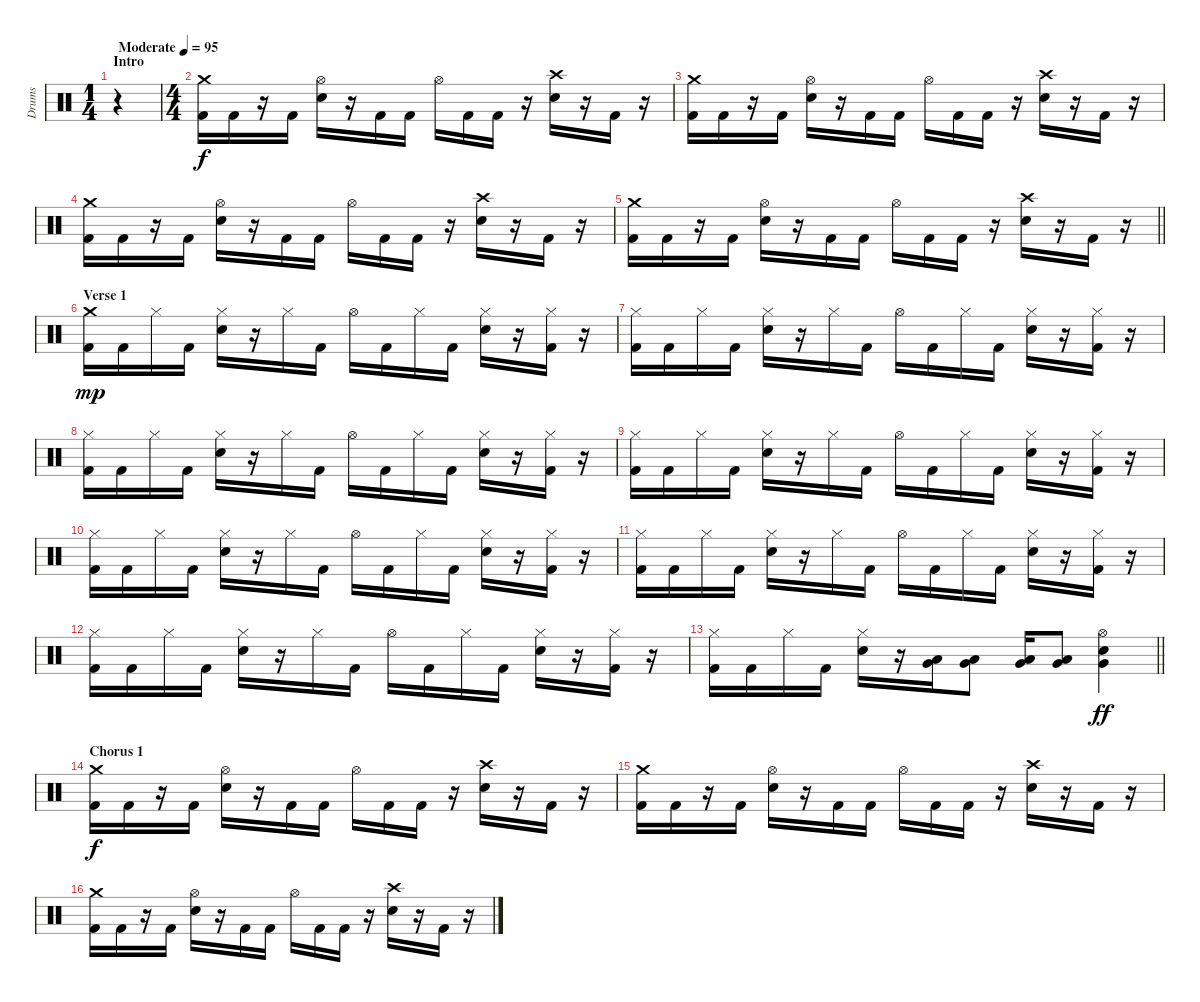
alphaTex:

\track ("Drums" "Drums") {instrument percussion}
\staff {score}
\articulation defaults
\ts (1 4)
\section ("" "Intro")
\tempo (95 "Moderate")
\clef neutral
\ks c
r.4{dy f} |
\ts (4 4)
("Crash medium (hit)" "Kick (hit) 2").16 "Kick (hit) 2".16 r.16 "Kick (hit) 2".16 ("Hi-Hat (open)" "Electric Snare (hit)").16 r.16 "Kick (hit) 2".16 "Kick (hit) 2".16 "Hi-Hat (open)".16 "Kick (hit) 2".16 "Kick (hit) 2".16 r.16 ("Crash high (hit)" "Electric Snare (hit)").16 r.16 "Kick (hit) 2".16 r.16 |
("Crash medium (hit)" "Kick (hit) 2").16 "Kick (hit) 2".16 r.16 "Kick (hit) 2".16 ("Hi-Hat (open)" "Electric Snare (hit)").16 r.16 "Kick (hit) 2".16 "Kick (hit) 2".16 "Hi-Hat (open)".16 "Kick (hit) 2".16 "Kick (hit) 2".16 r.16 ("Crash high (hit)" "Electric Snare (hit)").16 r.16 "Kick (hit) 2".16 r.16 |
("Crash medium (hit)" "Kick (hit) 2").16 "Kick (hit) 2".16 r.16 "Kick (hit) 2".16 ("Hi-Hat (open)" "Electric Snare (hit)").16 r.16 "Kick (hit) 2".16 "Kick (hit) 2".16 "Hi-Hat (open)".16 "Kick (hit) 2".16 "Kick (hit) 2".16 r.16 ("Crash high (hit)" "Electric Snare (hit)").16 r.16 "Kick (hit) 2".16 r.16 |
\barLineRight lightlight
("Crash medium (hit)" "Kick (hit) 2").16 "Kick (hit) 2".16 r.16 "Kick (hit) 2".16 ("Hi-Hat (open)" "Electric Snare (hit)").16 r.16 "Kick (hit) 2".16 "Kick (hit) 2".16 "Hi-Hat (open)".16 "Kick (hit) 2".16 "Kick (hit) 2".16 r.16 ("Crash high (hit)" "Electric Snare (hit)").16 r.16 "Kick (hit) 2".16 r.16 |
\section ("" "Verse 1")
("Crash medium (hit)" "Kick (hit) 2").16{dy mp} "Kick (hit) 2".16 "Hi-Hat (closed)".16 "Kick (hit) 2".16 ("Hi-Hat (closed)" "Electric Snare (hit)").16 r.16 "Hi-Hat (closed)".16 "Kick (hit) 2".16 "Hi-Hat (open)".16 "Kick (hit) 2".16 "Hi-Hat (closed)".16 "Kick (hit) 2".16 ("Hi-Hat (closed)" "Electric Snare (hit)").16 r.16 ("Hi-Hat (closed)" "Kick (hit) 2").16 r.16 |
("Hi-Hat (closed)" "Kick (hit) 2").16 "Kick (hit) 2".16 "Hi-Hat (closed)".16 "Kick (hit) 2".16 ("Hi-Hat (closed)" "Electric Snare (hit)").16 r.16 "Hi-Hat (closed)".16 "Kick (hit) 2".16 "Hi-Hat (open)".16 "Kick (hit) 2".16 "Hi-Hat (closed)".16 "Kick (hit) 2".16 ("Hi-Hat (closed)" "Electric Snare (hit)").16 r.16 ("Hi-Hat (closed)" "Kick (hit) 2").16 r.16 |
("Hi-Hat (closed)" "Kick (hit) 2").16 "Kick (hit) 2".16 "Hi-Hat (closed)".16 "Kick (hit) 2".16 ("Hi-Hat (closed)" "Electric Snare (hit)").16 r.16 "Hi-Hat (closed)".16 "Kick (hit) 2".16 "Hi-Hat (open)".16 "Kick (hit) 2".16 "Hi-Hat (closed)".16 "Kick (hit) 2".16 ("Hi-Hat (closed)" "Electric Snare (hit)").16 r.16 ("Hi-Hat (closed)" "Kick (hit) 2").16 r.16 |
("Hi-Hat (closed)" "Kick (hit) 2").16 "Kick (hit) 2".16 "Hi-Hat (closed)".16 "Kick (hit) 2".16 ("Hi-Hat (closed)" "Electric Snare (hit)").16 r.16 "Hi-Hat (closed)".16 "Kick (hit) 2".16 "Hi-Hat (open)".16 "Kick (hit) 2".16 "Hi-Hat (closed)".16 "Kick (hit) 2".16 ("Hi-Hat (closed)" "Electric Snare (hit)").16 r.16 ("Hi-Hat (closed)" "Kick (hit) 2").16 r.16 |
("Hi-Hat (closed)" "Kick (hit) 2").16 "Kick (hit) 2".16 "Hi-Hat (closed)".16 "Kick (hit) 2".16 ("Hi-Hat (closed)" "Electric Snare (hit)").16 r.16 "Hi-Hat (closed)".16 "Kick (hit) 2".16 "Hi-Hat (open)".16 "Kick (hit) 2".16 "Hi-Hat (closed)".16 "Kick (hit) 2".16 ("Hi-Hat (closed)" "Electric Snare (hit)").16 r.16 ("Hi-Hat (closed)" "Kick (hit) 2").16 r.16 |
("Hi-Hat (closed)" "Kick (hit) 2").16 "Kick (hit) 2".16 "Hi-Hat (closed)".16 "Kick (hit) 2".16 ("Hi-Hat (closed)" "Electric Snare (hit)").16 r.16 "Hi-Hat (closed)".16 "Kick (hit) 2".16 "Hi-Hat (open)".16 "Kick (hit) 2".16 "Hi-Hat (closed)".16 "Kick (hit) 2".16 ("Hi-Hat (closed)" "Electric Snare (hit)").16 r.16 ("Hi-Hat (closed)" "Kick (hit) 2").16 r.16 |
("Hi-Hat (closed)" "Kick (hit) 2").16 "Kick (hit) 2".16 "Hi-Hat (closed)".16 "Kick (hit) 2".16 ("Hi-Hat (closed)" "Electric Snare (hit)").16 r.16 "Hi-Hat (closed)".16 "Kick (hit) 2".16 "Hi-Hat (open)".16 "Kick (hit) 2".16 "Hi-Hat (closed)".16 "Kick (hit) 2".16 ("Hi-Hat (closed)" "Electric Snare (hit)").16 r.16 ("Hi-Hat (closed)" "Kick (hit) 2").16 r.16 |
\barLineRight lightlight
("Hi-Hat (closed)" "Kick (hit) 2").16 "Kick (hit) 2".16 "Hi-Hat (closed)".16 "Kick (hit) 2".16 ("Hi-Hat (closed)" "Electric Snare (hit)").16 r.16 ("Low Tom (hit)" "Very Low Tom (hit)").16 ("Low Tom (hit)" "Very Low Tom (hit)").8 ("Low Tom (hit)" "Very Low Tom (hit)").16 ("Low Tom (hit)" "Very Low Tom (hit)").8 ("Hi-Hat (open)" "Very Low Tom (hit)" "Electric Snare (hit)").4{dy ff} |
\section ("" "Chorus 1")
("Crash medium (hit)" "Kick (hit) 2").16{dy f} "Kick (hit) 2".16 r.16 "Kick (hit) 2".16 ("Hi-Hat (open)" "Electric Snare (hit)").16 r.16 "Kick (hit) 2".16 "Kick (hit) 2".16 "Hi-Hat (open)".16 "Kick (hit) 2".16 "Kick (hit) 2".16 r.16 ("Crash high (hit)" "Electric Snare (hit)").16 r.16 "Kick (hit) 2".16 r.16 |
("Crash medium (hit)" "Kick (hit) 2").16 "Kick (hit) 2".16 r.16 "Kick (hit) 2".16 ("Hi-Hat (open)" "Electric Snare (hit)").16 r.16 "Kick (hit) 2".16 "Kick (hit) 2".16 "Hi-Hat (open)".16 "Kick (hit) 2".16 "Kick (hit) 2".16 r.16 ("Crash high (hit)" "Electric Snare (hit)").16 r.16 "Kick (hit) 2".16 r.16 |
("Crash medium (hit)" "Kick (hit) 2").16 "Kick (hit) 2".16 r.16 "Kick (hit) 2".16 ("Hi-Hat (open)" "Electric Snare (hit)").16 r.16 "Kick (hit) 2".16 "Kick (hit) 2".16 "Hi-Hat (open)".16 "Kick (hit) 2".16 "Kick (hit) 2".16 r.16 ("Crash high (hit)" "Electric Snare (hit)").16 r.16 "Kick (hit) 2".16 r.16
